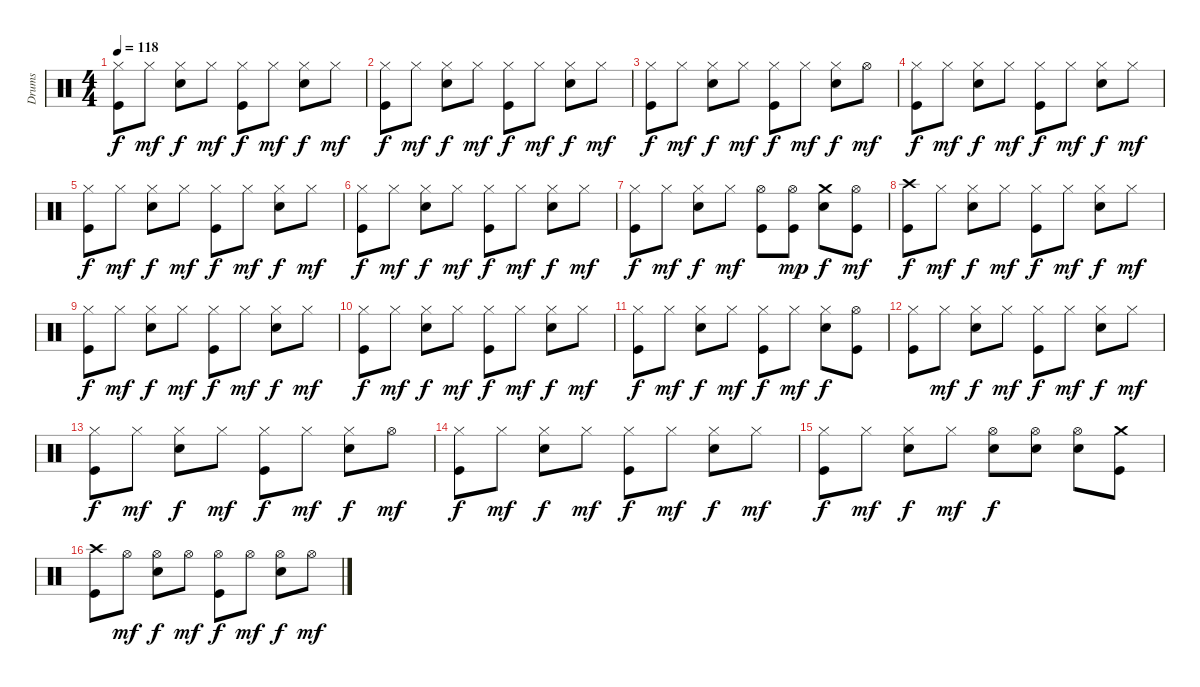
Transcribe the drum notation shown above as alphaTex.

\track ("Drums" "Drums") {instrument percussion}
\staff {score}
\articulation defaults
\ts (4 4)
\tempo 118
\clef neutral
\ks c
("Hi-Hat (closed)" "Kick (hit)").8{dy f} "Hi-Hat (closed)".8{dy mf} ("Hi-Hat (closed)" "Snare (hit) 2").8{dy f} "Hi-Hat (closed)".8{dy mf} ("Hi-Hat (closed)" "Kick (hit)").8{dy f} "Hi-Hat (closed)".8{dy mf} ("Hi-Hat (closed)" "Snare (hit) 2").8{dy f} "Hi-Hat (closed)".8{dy mf} |
("Hi-Hat (closed)" "Kick (hit)").8{dy f} "Hi-Hat (closed)".8{dy mf} ("Hi-Hat (closed)" "Snare (hit) 2").8{dy f} "Hi-Hat (closed)".8{dy mf} ("Hi-Hat (closed)" "Kick (hit)").8{dy f} "Hi-Hat (closed)".8{dy mf} ("Hi-Hat (closed)" "Snare (hit) 2").8{dy f} "Hi-Hat (closed)".8{dy mf} |
("Hi-Hat (closed)" "Kick (hit)").8{dy f} "Hi-Hat (closed)".8{dy mf} ("Hi-Hat (closed)" "Snare (hit) 2").8{dy f} "Hi-Hat (closed)".8{dy mf} ("Hi-Hat (closed)" "Kick (hit)").8{dy f} "Hi-Hat (closed)".8{dy mf} ("Hi-Hat (closed)" "Snare (hit) 2").8{dy f} "Hi-Hat (open)".8{dy mf} |
("Hi-Hat (closed)" "Kick (hit)").8{dy f} "Hi-Hat (closed)".8{dy mf} ("Hi-Hat (closed)" "Snare (hit) 2").8{dy f} "Hi-Hat (closed)".8{dy mf} ("Hi-Hat (closed)" "Kick (hit)").8{dy f} "Hi-Hat (closed)".8{dy mf} ("Hi-Hat (closed)" "Snare (hit) 2").8{dy f} "Hi-Hat (closed)".8{dy mf} |
("Hi-Hat (closed)" "Kick (hit)").8{dy f} "Hi-Hat (closed)".8{dy mf} ("Hi-Hat (closed)" "Snare (hit) 2").8{dy f} "Hi-Hat (closed)".8{dy mf} ("Hi-Hat (closed)" "Kick (hit)").8{dy f} "Hi-Hat (closed)".8{dy mf} ("Hi-Hat (closed)" "Snare (hit) 2").8{dy f} "Hi-Hat (closed)".8{dy mf} |
("Hi-Hat (closed)" "Kick (hit)").8{dy f} "Hi-Hat (closed)".8{dy mf} ("Hi-Hat (closed)" "Snare (hit) 2").8{dy f} "Hi-Hat (closed)".8{dy mf} ("Hi-Hat (closed)" "Kick (hit)").8{dy f} "Hi-Hat (closed)".8{dy mf} ("Hi-Hat (closed)" "Snare (hit) 2").8{dy f} "Hi-Hat (closed)".8{dy mf} |
("Hi-Hat (closed)" "Kick (hit)").8{dy f} "Hi-Hat (closed)".8{dy mf} ("Hi-Hat (closed)" "Snare (hit) 2").8{dy f} "Hi-Hat (closed)".8{dy mf} ("Hi-Hat (open)" "Kick (hit)").8 ("Hi-Hat (open)" "Kick (hit)").8{dy mp} ("Crash medium (hit)" "Snare (hit) 2").8{dy f} ("Hi-Hat (open)" "Kick (hit)").8{dy mf} |
("Kick (hit)" "Crash high (hit)").8{dy f} "Hi-Hat (closed)".8{dy mf} ("Hi-Hat (closed)" "Snare (hit) 2").8{dy f} "Hi-Hat (closed)".8{dy mf} ("Hi-Hat (closed)" "Kick (hit)").8{dy f} "Hi-Hat (closed)".8{dy mf} ("Hi-Hat (closed)" "Snare (hit) 2").8{dy f} "Hi-Hat (closed)".8{dy mf} |
("Hi-Hat (closed)" "Kick (hit)").8{dy f} "Hi-Hat (closed)".8{dy mf} ("Hi-Hat (closed)" "Snare (hit) 2").8{dy f} "Hi-Hat (closed)".8{dy mf} ("Hi-Hat (closed)" "Kick (hit)").8{dy f} "Hi-Hat (closed)".8{dy mf} ("Hi-Hat (closed)" "Snare (hit) 2").8{dy f} "Hi-Hat (closed)".8{dy mf} |
("Hi-Hat (closed)" "Kick (hit)").8{dy f} "Hi-Hat (closed)".8{dy mf} ("Hi-Hat (closed)" "Snare (hit) 2").8{dy f} "Hi-Hat (closed)".8{dy mf} ("Hi-Hat (closed)" "Kick (hit)").8{dy f} "Hi-Hat (closed)".8{dy mf} ("Hi-Hat (closed)" "Snare (hit) 2").8{dy f} "Hi-Hat (closed)".8{dy mf} |
("Hi-Hat (closed)" "Kick (hit)").8{dy f} "Hi-Hat (closed)".8{dy mf} ("Hi-Hat (closed)" "Snare (hit) 2").8{dy f} "Hi-Hat (closed)".8{dy mf} ("Hi-Hat (closed)" "Kick (hit)").8{dy f} "Hi-Hat (closed)".8{dy mf} ("Hi-Hat (closed)" "Snare (hit) 2").8{dy f} ("Hi-Hat (open)" "Kick (hit)").8 |
("Hi-Hat (closed)" "Kick (hit)").8 "Hi-Hat (closed)".8{dy mf} ("Hi-Hat (closed)" "Snare (hit) 2").8{dy f} "Hi-Hat (closed)".8{dy mf} ("Hi-Hat (closed)" "Kick (hit)").8{dy f} "Hi-Hat (closed)".8{dy mf} ("Hi-Hat (closed)" "Snare (hit) 2").8{dy f} "Hi-Hat (closed)".8{dy mf} |
("Hi-Hat (closed)" "Kick (hit)").8{dy f} "Hi-Hat (closed)".8{dy mf} ("Hi-Hat (closed)" "Snare (hit) 2").8{dy f} "Hi-Hat (closed)".8{dy mf} ("Hi-Hat (closed)" "Kick (hit)").8{dy f} "Hi-Hat (closed)".8{dy mf} ("Hi-Hat (closed)" "Snare (hit) 2").8{dy f} "Hi-Hat (open)".8{dy mf} |
("Hi-Hat (closed)" "Kick (hit)").8{dy f} "Hi-Hat (closed)".8{dy mf} ("Hi-Hat (closed)" "Snare (hit) 2").8{dy f} "Hi-Hat (closed)".8{dy mf} ("Hi-Hat (closed)" "Kick (hit)").8{dy f} "Hi-Hat (closed)".8{dy mf} ("Hi-Hat (closed)" "Snare (hit) 2").8{dy f} "Hi-Hat (closed)".8{dy mf} |
("Hi-Hat (closed)" "Kick (hit)").8{dy f} "Hi-Hat (closed)".8{dy mf} ("Hi-Hat (closed)" "Snare (hit) 2").8{dy f} "Hi-Hat (closed)".8{dy mf} ("Hi-Hat (open)" "Snare (hit) 2").8{dy f} ("Hi-Hat (open)" "Snare (hit) 2").8 ("Hi-Hat (open)" "Snare (hit) 2").8 ("Crash medium (hit)" "Kick (hit)").8 |
("Kick (hit)" "Crash high (hit)").8 "Hi-Hat (open)".8{dy mf} ("Hi-Hat (open)" "Snare (hit) 2").8{dy f} "Hi-Hat (open)".8{dy mf} ("Hi-Hat (open)" "Kick (hit)").8{dy f} "Hi-Hat (open)".8{dy mf} ("Hi-Hat (open)" "Snare (hit) 2").8{dy f} "Hi-Hat (open)".8{dy mf}
